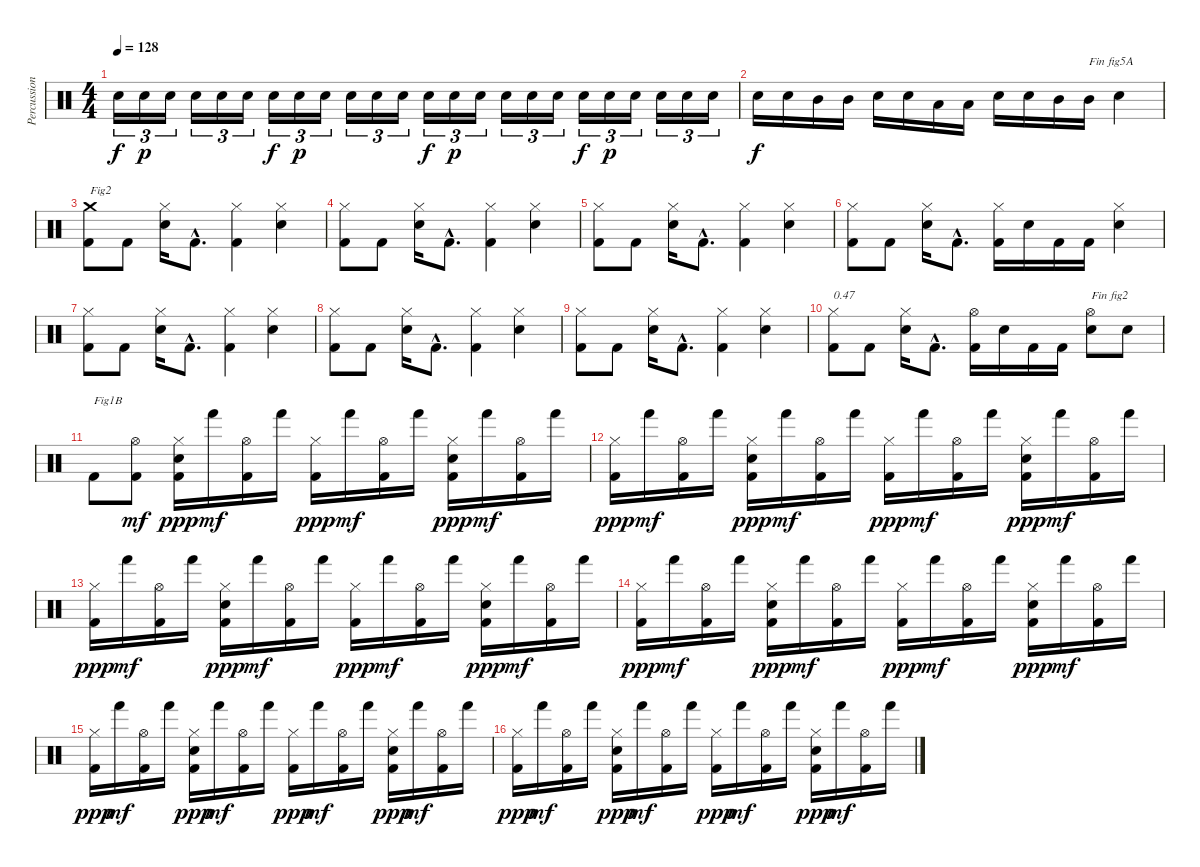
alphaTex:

\track ("Percussions" "Percussion") {instrument percussion}
\staff {score}
\articulation defaults
\ts (4 4)
\tempo 128
\clef neutral
\ks c "Electric Snare (hit)".16{tu (3 2) dy f} "Electric Snare (hit)".16{tu (3 2) dy p} "Electric Snare (hit)".16{tu (3 2)} "Electric Snare (hit)".16{tu (3 2)} "Electric Snare (hit)".16{tu (3 2)} "Electric Snare (hit)".16{tu (3 2)} "Electric Snare (hit)".16{tu (3 2) dy f} "Electric Snare (hit)".16{tu (3 2) dy p} "Electric Snare (hit)".16{tu (3 2)} "Electric Snare (hit)".16{tu (3 2)} "Electric Snare (hit)".16{tu (3 2)} "Electric Snare (hit)".16{tu (3 2)} "Electric Snare (hit)".16{tu (3 2) dy f} "Electric Snare (hit)".16{tu (3 2) dy p} "Electric Snare (hit)".16{tu (3 2)} "Electric Snare (hit)".16{tu (3 2)} "Electric Snare (hit)".16{tu (3 2)} "Electric Snare (hit)".16{tu (3 2)} "Electric Snare (hit)".16{tu (3 2) dy f} "Electric Snare (hit)".16{tu (3 2) dy p} "Electric Snare (hit)".16{tu (3 2)} "Electric Snare (hit)".16{tu (3 2)} "Electric Snare (hit)".16{tu (3 2)} "Electric Snare (hit)".16{tu (3 2)}
|
"Electric Snare (hit)".16{dy f} "Electric Snare (hit)".16 "Mid Tom (hit)".16 "Mid Tom (hit)".16 "Electric Snare (hit)".16 "Electric Snare (hit)".16 "Low Tom (hit)".16 "Low Tom (hit)".16 "Electric Snare (hit)".16 "Electric Snare (hit)".16 "Mid Tom (hit)".16 "Mid Tom (hit)".16{txt "Fin fig5A"} "Electric Snare (hit)".4 |
("Kick (hit) 2" "Crash medium (hit)").8{txt "Fig2"} "Kick (hit) 2".8 ("Electric Snare (hit)" "Hi-Hat (closed)").16 "Kick (hit) 2"{hac}.8{d} ("Kick (hit) 2" "Hi-Hat (closed)").4 ("Electric Snare (hit)" "Hi-Hat (closed)").4 |
("Kick (hit) 2" "Hi-Hat (closed)").8 "Kick (hit) 2".8 ("Electric Snare (hit)" "Hi-Hat (closed)").16 "Kick (hit) 2"{hac}.8{d} ("Kick (hit) 2" "Hi-Hat (closed)").4 ("Electric Snare (hit)" "Hi-Hat (closed)").4 |
("Kick (hit) 2" "Hi-Hat (closed)").8 "Kick (hit) 2".8 ("Electric Snare (hit)" "Hi-Hat (closed)").16 "Kick (hit) 2"{hac}.8{d} ("Kick (hit) 2" "Hi-Hat (closed)").4 ("Electric Snare (hit)" "Hi-Hat (closed)").4 |
("Kick (hit) 2" "Hi-Hat (closed)").8 "Kick (hit) 2".8 ("Electric Snare (hit)" "Hi-Hat (closed)").16 "Kick (hit) 2"{hac}.8{d} ("Kick (hit) 2" "Hi-Hat (closed)").16 "Electric Snare (hit)".16 "Kick (hit) 2".16 "Kick (hit) 2".16 ("Electric Snare (hit)" "Hi-Hat (closed)").4 |
("Kick (hit) 2" "Hi-Hat (closed)").8 "Kick (hit) 2".8 ("Electric Snare (hit)" "Hi-Hat (closed)").16 "Kick (hit) 2"{hac}.8{d} ("Kick (hit) 2" "Hi-Hat (closed)").4 ("Electric Snare (hit)" "Hi-Hat (closed)").4 |
("Kick (hit) 2" "Hi-Hat (closed)").8 "Kick (hit) 2".8 ("Electric Snare (hit)" "Hi-Hat (closed)").16 "Kick (hit) 2"{hac}.8{d} ("Kick (hit) 2" "Hi-Hat (closed)").4 ("Electric Snare (hit)" "Hi-Hat (closed)").4 |
("Kick (hit) 2" "Hi-Hat (closed)").8 "Kick (hit) 2".8 ("Electric Snare (hit)" "Hi-Hat (closed)").16 "Kick (hit) 2"{hac}.8{d} ("Kick (hit) 2" "Hi-Hat (closed)").4 ("Electric Snare (hit)" "Hi-Hat (closed)").4 |
("Kick (hit) 2" "Hi-Hat (closed)").8{txt "0.47"} "Kick (hit) 2".8 ("Electric Snare (hit)" "Hi-Hat (closed)").16 "Kick (hit) 2"{hac}.8{d} ("Kick (hit) 2" "Hi-Hat (open)").16 "Electric Snare (hit)".16 "Kick (hit) 2".16 "Kick (hit) 2".16 ("Electric Snare (hit)" "Hi-Hat (open)").8{txt "Fin fig2"} "Electric Snare (hit)".8 |
"Kick (hit) 2".8{txt "Fig1B"} ("Kick (hit) 2" "Hi-Hat (open)").8{dy mf} ("Kick (hit) 2" "Electric Snare (hit)" "Hi-Hat (closed)").16{dy ppp} "Hand (hit)".16{dy mf} ("Kick (hit) 2" "Hi-Hat (open)").16 "Hand (hit)".16 ("Kick (hit) 2" "Hi-Hat (closed)").16{dy ppp} "Hand (hit)".16{dy mf} ("Kick (hit) 2" "Hi-Hat (open)").16 "Hand (hit)".16 ("Kick (hit) 2" "Electric Snare (hit)" "Hi-Hat (closed)").16{dy ppp} "Hand (hit)".16{dy mf} ("Kick (hit) 2" "Hi-Hat (open)").16 "Hand (hit)".16 |
("Kick (hit) 2" "Hi-Hat (closed)").16{dy ppp} "Hand (hit)".16{dy mf} ("Kick (hit) 2" "Hi-Hat (open)").16 "Hand (hit)".16 ("Kick (hit) 2" "Electric Snare (hit)" "Hi-Hat (closed)").16{dy ppp} "Hand (hit)".16{dy mf} ("Kick (hit) 2" "Hi-Hat (open)").16 "Hand (hit)".16 ("Kick (hit) 2" "Hi-Hat (closed)").16{dy ppp} "Hand (hit)".16{dy mf} ("Kick (hit) 2" "Hi-Hat (open)").16 "Hand (hit)".16 ("Kick (hit) 2" "Electric Snare (hit)" "Hi-Hat (closed)").16{dy ppp} "Hand (hit)".16{dy mf} ("Kick (hit) 2" "Hi-Hat (open)").16 "Hand (hit)".16 |
("Kick (hit) 2" "Hi-Hat (closed)").16{dy ppp} "Hand (hit)".16{dy mf} ("Kick (hit) 2" "Hi-Hat (open)").16 "Hand (hit)".16 ("Kick (hit) 2" "Electric Snare (hit)" "Hi-Hat (closed)").16{dy ppp} "Hand (hit)".16{dy mf} ("Kick (hit) 2" "Hi-Hat (open)").16 "Hand (hit)".16 ("Kick (hit) 2" "Hi-Hat (closed)").16{dy ppp} "Hand (hit)".16{dy mf} ("Kick (hit) 2" "Hi-Hat (open)").16 "Hand (hit)".16 ("Kick (hit) 2" "Electric Snare (hit)" "Hi-Hat (closed)").16{dy ppp} "Hand (hit)".16{dy mf} ("Kick (hit) 2" "Hi-Hat (open)").16 "Hand (hit)".16 |
("Kick (hit) 2" "Hi-Hat (closed)").16{dy ppp} "Hand (hit)".16{dy mf} ("Kick (hit) 2" "Hi-Hat (open)").16 "Hand (hit)".16 ("Kick (hit) 2" "Electric Snare (hit)" "Hi-Hat (closed)").16{dy ppp} "Hand (hit)".16{dy mf} ("Kick (hit) 2" "Hi-Hat (open)").16 "Hand (hit)".16 ("Kick (hit) 2" "Hi-Hat (closed)").16{dy ppp} "Hand (hit)".16{dy mf} ("Kick (hit) 2" "Hi-Hat (open)").16 "Hand (hit)".16 ("Kick (hit) 2" "Electric Snare (hit)" "Hi-Hat (closed)").16{dy ppp} "Hand (hit)".16{dy mf} ("Kick (hit) 2" "Hi-Hat (open)").16 "Hand (hit)".16 |
("Kick (hit) 2" "Hi-Hat (closed)").16{dy ppp} "Hand (hit)".16{dy mf} ("Kick (hit) 2" "Hi-Hat (open)").16 "Hand (hit)".16 ("Kick (hit) 2" "Electric Snare (hit)" "Hi-Hat (closed)").16{dy ppp} "Hand (hit)".16{dy mf} ("Kick (hit) 2" "Hi-Hat (open)").16 "Hand (hit)".16 ("Kick (hit) 2" "Hi-Hat (closed)").16{dy ppp} "Hand (hit)".16{dy mf} ("Kick (hit) 2" "Hi-Hat (open)").16 "Hand (hit)".16 ("Kick (hit) 2" "Electric Snare (hit)" "Hi-Hat (closed)").16{dy ppp} "Hand (hit)".16{dy mf} ("Kick (hit) 2" "Hi-Hat (open)").16 "Hand (hit)".16 |
("Kick (hit) 2" "Hi-Hat (closed)").16{dy ppp} "Hand (hit)".16{dy mf} ("Kick (hit) 2" "Hi-Hat (open)").16 "Hand (hit)".16 ("Kick (hit) 2" "Electric Snare (hit)" "Hi-Hat (closed)").16{dy ppp} "Hand (hit)".16{dy mf} ("Kick (hit) 2" "Hi-Hat (open)").16 "Hand (hit)".16 ("Kick (hit) 2" "Hi-Hat (closed)").16{dy ppp} "Hand (hit)".16{dy mf} ("Kick (hit) 2" "Hi-Hat (open)").16 "Hand (hit)".16 ("Kick (hit) 2" "Electric Snare (hit)" "Hi-Hat (closed)").16{dy ppp} "Hand (hit)".16{dy mf} ("Kick (hit) 2" "Hi-Hat (open)").16 "Hand (hit)".16
